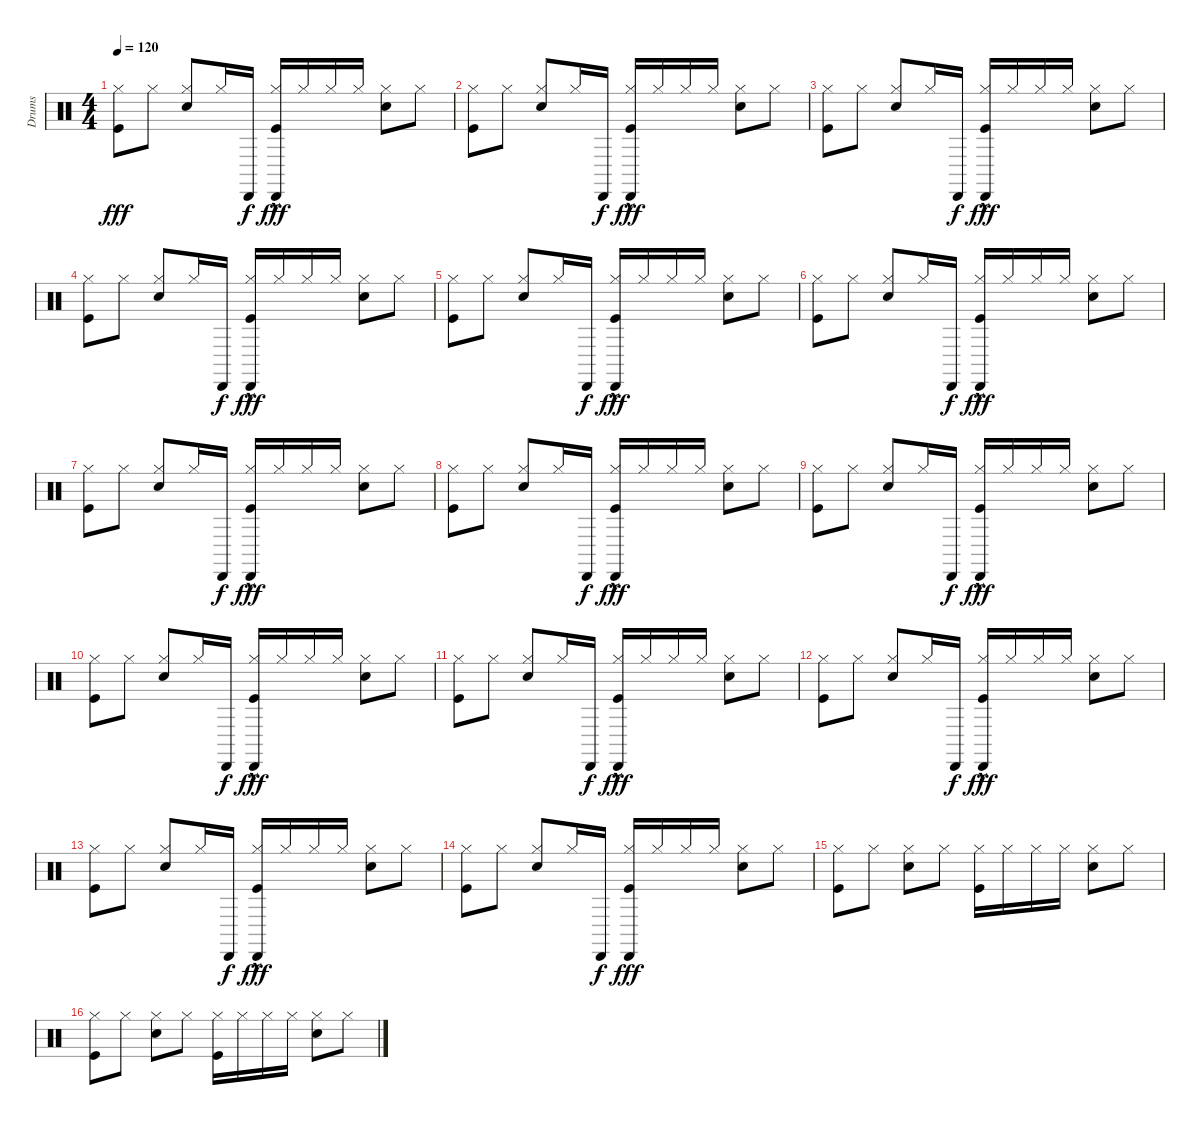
\track ("Drums" "Drums") {instrument percussion}
\staff {score}
\articulation defaults
\ts (4 4)
\tempo 120
\clef neutral
\ks c
("Kick (hit)" "Hi-Hat (closed)").8{dy fff} "Hi-Hat (closed)".8 ("Snare (hit) 2" "Hi-Hat (closed)").8 "Hi-Hat (closed)".16 "Cabasa (hit)".16{dy f} ("Cabasa (hit)"{hac} "Kick (hit)" "Hi-Hat (closed)").16{dy fff} "Hi-Hat (closed)".16 "Hi-Hat (closed)".16 "Hi-Hat (closed)".16 ("Snare (hit) 2" "Hi-Hat (closed)").8 "Hi-Hat (closed)".8 |
("Kick (hit)" "Hi-Hat (closed)").8 "Hi-Hat (closed)".8 ("Snare (hit) 2" "Hi-Hat (closed)").8 "Hi-Hat (closed)".16 "Cabasa (hit)".16{dy f} ("Cabasa (hit)"{hac} "Kick (hit)" "Hi-Hat (closed)").16{dy fff} "Hi-Hat (closed)".16 "Hi-Hat (closed)".16 "Hi-Hat (closed)".16 ("Snare (hit) 2" "Hi-Hat (closed)").8 "Hi-Hat (closed)".8 |
("Kick (hit)" "Hi-Hat (closed)").8 "Hi-Hat (closed)".8 ("Snare (hit) 2" "Hi-Hat (closed)").8 "Hi-Hat (closed)".16 "Cabasa (hit)".16{dy f} ("Cabasa (hit)"{hac} "Kick (hit)" "Hi-Hat (closed)").16{dy fff} "Hi-Hat (closed)".16 "Hi-Hat (closed)".16 "Hi-Hat (closed)".16 ("Snare (hit) 2" "Hi-Hat (closed)").8 "Hi-Hat (closed)".8 |
("Kick (hit)" "Hi-Hat (closed)").8 "Hi-Hat (closed)".8 ("Snare (hit) 2" "Hi-Hat (closed)").8 "Hi-Hat (closed)".16 "Cabasa (hit)".16{dy f} ("Cabasa (hit)"{hac} "Kick (hit)" "Hi-Hat (closed)").16{dy fff} "Hi-Hat (closed)".16 "Hi-Hat (closed)".16 "Hi-Hat (closed)".16 ("Snare (hit) 2" "Hi-Hat (closed)").8 "Hi-Hat (closed)".8 |
("Kick (hit)" "Hi-Hat (closed)").8 "Hi-Hat (closed)".8 ("Snare (hit) 2" "Hi-Hat (closed)").8 "Hi-Hat (closed)".16 "Cabasa (hit)".16{dy f} ("Cabasa (hit)"{hac} "Kick (hit)" "Hi-Hat (closed)").16{dy fff} "Hi-Hat (closed)".16 "Hi-Hat (closed)".16 "Hi-Hat (closed)".16 ("Snare (hit) 2" "Hi-Hat (closed)").8 "Hi-Hat (closed)".8 |
("Kick (hit)" "Hi-Hat (closed)").8 "Hi-Hat (closed)".8 ("Snare (hit) 2" "Hi-Hat (closed)").8 "Hi-Hat (closed)".16 "Cabasa (hit)".16{dy f} ("Cabasa (hit)"{hac} "Kick (hit)" "Hi-Hat (closed)").16{dy fff} "Hi-Hat (closed)".16 "Hi-Hat (closed)".16 "Hi-Hat (closed)".16 ("Snare (hit) 2" "Hi-Hat (closed)").8 "Hi-Hat (closed)".8 |
("Kick (hit)" "Hi-Hat (closed)").8 "Hi-Hat (closed)".8 ("Snare (hit) 2" "Hi-Hat (closed)").8 "Hi-Hat (closed)".16 "Cabasa (hit)".16{dy f} ("Cabasa (hit)"{hac} "Kick (hit)" "Hi-Hat (closed)").16{dy fff} "Hi-Hat (closed)".16 "Hi-Hat (closed)".16 "Hi-Hat (closed)".16 ("Snare (hit) 2" "Hi-Hat (closed)").8 "Hi-Hat (closed)".8 |
("Kick (hit)" "Hi-Hat (closed)").8 "Hi-Hat (closed)".8 ("Snare (hit) 2" "Hi-Hat (closed)").8 "Hi-Hat (closed)".16 "Cabasa (hit)".16{dy f} ("Cabasa (hit)"{hac} "Kick (hit)" "Hi-Hat (closed)").16{dy fff} "Hi-Hat (closed)".16 "Hi-Hat (closed)".16 "Hi-Hat (closed)".16 ("Snare (hit) 2" "Hi-Hat (closed)").8 "Hi-Hat (closed)".8 |
("Kick (hit)" "Hi-Hat (closed)").8 "Hi-Hat (closed)".8 ("Snare (hit) 2" "Hi-Hat (closed)").8 "Hi-Hat (closed)".16 "Cabasa (hit)".16{dy f} ("Cabasa (hit)"{hac} "Kick (hit)" "Hi-Hat (closed)").16{dy fff} "Hi-Hat (closed)".16 "Hi-Hat (closed)".16 "Hi-Hat (closed)".16 ("Snare (hit) 2" "Hi-Hat (closed)").8 "Hi-Hat (closed)".8 |
("Kick (hit)" "Hi-Hat (closed)").8 "Hi-Hat (closed)".8 ("Snare (hit) 2" "Hi-Hat (closed)").8 "Hi-Hat (closed)".16 "Cabasa (hit)".16{dy f} ("Cabasa (hit)"{hac} "Kick (hit)" "Hi-Hat (closed)").16{dy fff} "Hi-Hat (closed)".16 "Hi-Hat (closed)".16 "Hi-Hat (closed)".16 ("Snare (hit) 2" "Hi-Hat (closed)").8 "Hi-Hat (closed)".8 |
("Kick (hit)" "Hi-Hat (closed)").8 "Hi-Hat (closed)".8 ("Snare (hit) 2" "Hi-Hat (closed)").8 "Hi-Hat (closed)".16 "Cabasa (hit)".16{dy f} ("Cabasa (hit)"{hac} "Kick (hit)" "Hi-Hat (closed)").16{dy fff} "Hi-Hat (closed)".16 "Hi-Hat (closed)".16 "Hi-Hat (closed)".16 ("Snare (hit) 2" "Hi-Hat (closed)").8 "Hi-Hat (closed)".8 |
("Kick (hit)" "Hi-Hat (closed)").8 "Hi-Hat (closed)".8 ("Snare (hit) 2" "Hi-Hat (closed)").8 "Hi-Hat (closed)".16 "Cabasa (hit)".16{dy f} ("Cabasa (hit)"{hac} "Kick (hit)" "Hi-Hat (closed)").16{dy fff} "Hi-Hat (closed)".16 "Hi-Hat (closed)".16 "Hi-Hat (closed)".16 ("Snare (hit) 2" "Hi-Hat (closed)").8 "Hi-Hat (closed)".8 |
("Kick (hit)" "Hi-Hat (closed)").8 "Hi-Hat (closed)".8 ("Snare (hit) 2" "Hi-Hat (closed)").8 "Hi-Hat (closed)".16 "Cabasa (hit)".16{dy f} ("Cabasa (hit)"{hac} "Kick (hit)" "Hi-Hat (closed)").16{dy fff} "Hi-Hat (closed)".16 "Hi-Hat (closed)".16 "Hi-Hat (closed)".16 ("Snare (hit) 2" "Hi-Hat (closed)").8 "Hi-Hat (closed)".8 |
("Kick (hit)" "Hi-Hat (closed)").8 "Hi-Hat (closed)".8 ("Snare (hit) 2" "Hi-Hat (closed)").8 "Hi-Hat (closed)".16 "Cabasa (hit)".16{dy f} ("Cabasa (hit)" "Kick (hit)" "Hi-Hat (closed)").16{dy fff} "Hi-Hat (closed)".16 "Hi-Hat (closed)".16 "Hi-Hat (closed)".16 ("Snare (hit) 2" "Hi-Hat (closed)").8 "Hi-Hat (closed)".8 |
("Kick (hit)" "Hi-Hat (closed)").8 "Hi-Hat (closed)".8 ("Snare (hit) 2" "Hi-Hat (closed)").8 "Hi-Hat (closed)".8 ("Kick (hit)" "Hi-Hat (closed)").16 "Hi-Hat (closed)".16 "Hi-Hat (closed)".16 "Hi-Hat (closed)".16 ("Snare (hit) 2" "Hi-Hat (closed)").8 "Hi-Hat (closed)".8 |
("Kick (hit)" "Hi-Hat (closed)").8 "Hi-Hat (closed)".8 ("Snare (hit) 2" "Hi-Hat (closed)").8 "Hi-Hat (closed)".8 ("Kick (hit)" "Hi-Hat (closed)").16 "Hi-Hat (closed)".16 "Hi-Hat (closed)".16 "Hi-Hat (closed)".16 ("Snare (hit) 2" "Hi-Hat (closed)").8 "Hi-Hat (closed)".8
